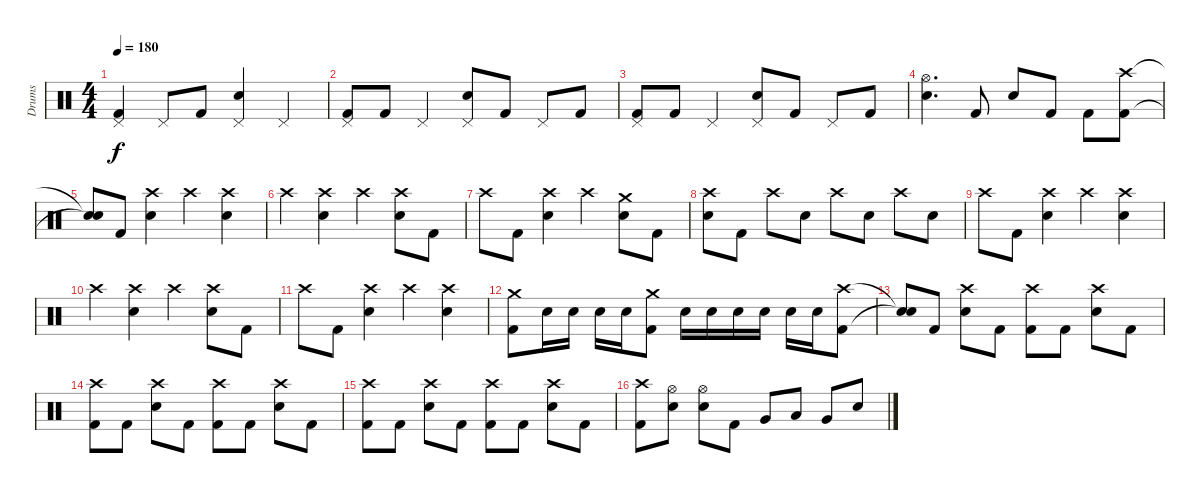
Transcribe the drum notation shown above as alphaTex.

\track ("Drums" "Drums") {instrument percussion}
\staff {score}
\articulation defaults
\ts (4 4)
\tempo 180
\clef neutral
\ks c
("Pedal Hi-Hat (hit)" "Kick (hit) 2").4{dy f} "Pedal Hi-Hat (hit)".8 "Kick (hit) 2".8 ("Pedal Hi-Hat (hit)" "Electric Snare (hit)").4 "Pedal Hi-Hat (hit)".4 |
("Pedal Hi-Hat (hit)" "Kick (hit) 2").8 "Kick (hit) 2".8 "Pedal Hi-Hat (hit)".4 ("Pedal Hi-Hat (hit)" "Electric Snare (hit)").8 "Kick (hit) 2".8 "Pedal Hi-Hat (hit)".8 "Kick (hit) 2".8 |
("Pedal Hi-Hat (hit)" "Kick (hit) 2").8 "Kick (hit) 2".8 "Pedal Hi-Hat (hit)".4 ("Pedal Hi-Hat (hit)" "Electric Snare (hit)").8 "Kick (hit) 2".8 "Pedal Hi-Hat (hit)".8 "Kick (hit) 2".8 |
("Hi-Hat (open)" "Electric Snare (hit)").4{d} "Kick (hit) 2".8 "Electric Snare (hit)".8 "Kick (hit) 2".8 "Kick (hit) 2".8 ("Crash high (hit)" "Kick (hit) 2").8 |
("Snare (hit)"{t} "Snare (hit)"{t}).8 "Kick (hit) 2".8 ("Crash high (hit)" "Electric Snare (hit)").4 "Crash high (hit)".4 ("Crash high (hit)" "Electric Snare (hit)").4 |
"Crash high (hit)".4 ("Crash high (hit)" "Electric Snare (hit)").4 "Crash high (hit)".4 ("Crash high (hit)" "Electric Snare (hit)").8 "Kick (hit) 2".8 |
"Crash high (hit)".8 "Kick (hit) 2".8 ("Crash high (hit)" "Electric Snare (hit)").4 "Crash high (hit)".4 ("Crash medium (hit)" "Electric Snare (hit)").8 "Kick (hit) 2".8 |
("Crash high (hit)" "Electric Snare (hit)").8 "Kick (hit) 2".8 "Crash high (hit)".8 "Electric Snare (hit)".8 "Crash high (hit)".8 "Electric Snare (hit)".8 "Crash high (hit)".8 "Electric Snare (hit)".8 |
"Crash high (hit)".8 "Kick (hit) 2".8 ("Crash high (hit)" "Electric Snare (hit)").4 "Crash high (hit)".4 ("Crash high (hit)" "Electric Snare (hit)").4 |
"Crash high (hit)".4 ("Crash high (hit)" "Electric Snare (hit)").4 "Crash high (hit)".4 ("Crash high (hit)" "Electric Snare (hit)").8 "Kick (hit) 2".8 |
"Crash high (hit)".8 "Kick (hit) 2".8 ("Crash high (hit)" "Electric Snare (hit)").4 "Crash high (hit)".4 ("Crash high (hit)" "Electric Snare (hit)").4 |
("Crash medium (hit)" "Kick (hit) 2").8 "Electric Snare (hit)".16 "Electric Snare (hit)".16 "Electric Snare (hit)".16 "Electric Snare (hit)".16 ("Crash medium (hit)" "Kick (hit) 2").8 "Electric Snare (hit)".16 "Electric Snare (hit)".16 "Electric Snare (hit)".16 "Electric Snare (hit)".16 "Electric Snare (hit)".16 "Electric Snare (hit)".16 ("Crash high (hit)" "Kick (hit) 2").8 |
("Snare (hit)"{t} "Snare (hit)"{t}).8 "Kick (hit) 2".8 ("Crash high (hit)" "Electric Snare (hit)").8 "Kick (hit) 2".8 ("Crash high (hit)" "Kick (hit) 2").8 "Kick (hit) 2".8 ("Crash high (hit)" "Electric Snare (hit)").8 "Kick (hit) 2".8 |
("Crash high (hit)" "Kick (hit) 2").8 "Kick (hit) 2".8 ("Crash high (hit)" "Electric Snare (hit)").8 "Kick (hit) 2".8 ("Crash high (hit)" "Kick (hit) 2").8 "Kick (hit) 2".8 ("Crash high (hit)" "Electric Snare (hit)").8 "Kick (hit) 2".8 |
("Crash high (hit)" "Kick (hit) 2").8 "Kick (hit) 2".8 ("Crash high (hit)" "Electric Snare (hit)").8 "Kick (hit) 2".8 ("Crash high (hit)" "Kick (hit) 2").8 "Kick (hit) 2".8 ("Crash high (hit)" "Electric Snare (hit)").8 "Kick (hit) 2".8 |
("Crash high (hit)" "Kick (hit) 2").8 ("Hi-Hat (open)" "Electric Snare (hit)").8 ("Hi-Hat (open)" "Electric Snare (hit)").8 "Kick (hit) 2".8 "Very Low Tom (hit)".8 "Low Tom (hit)".8 "Very Low Tom (hit)".8 "Electric Snare (hit)".8
